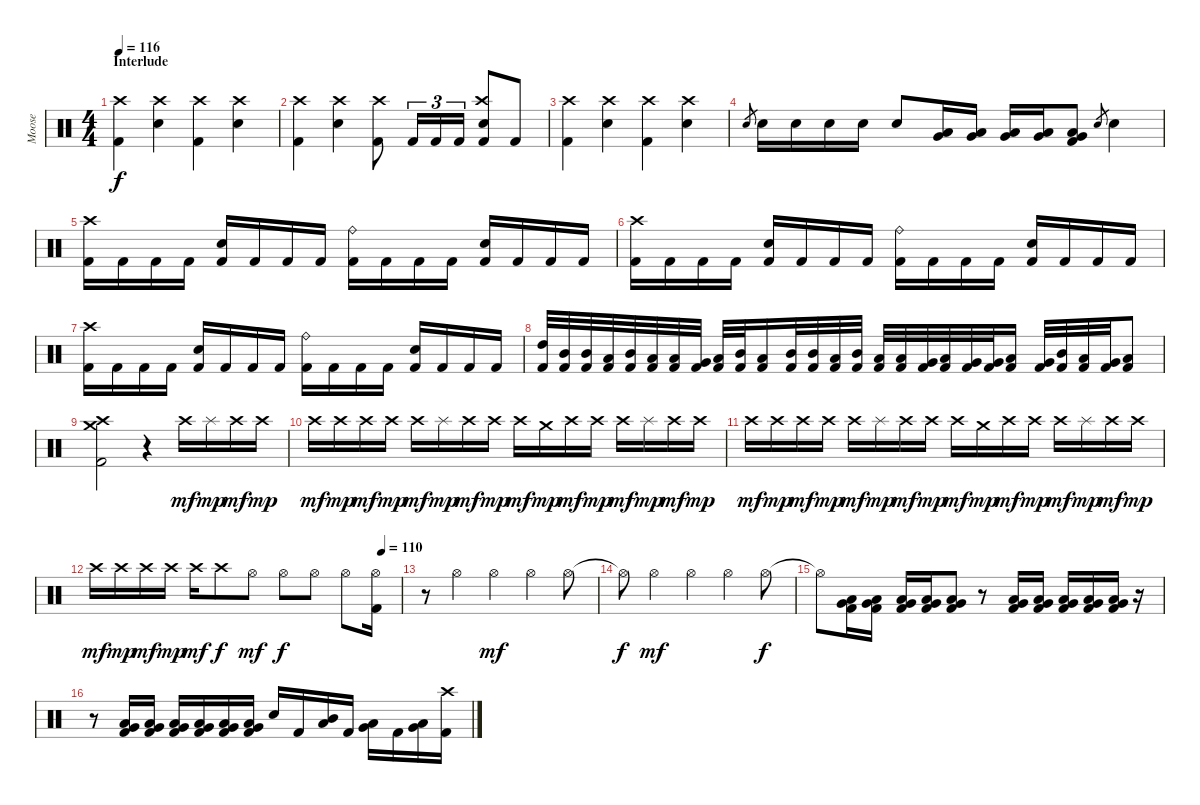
\track ("Moose" "Moose") {instrument percussion}
\staff {score}
\articulation defaults
\ts (4 4)
\section ("" "Interlude")
\tempo 116
\clef neutral
\ks c
("Kick (hit) 2" "Crash high (hit)").4{dy f} ("Snare (hit) 2" "Crash high (hit)").4 ("Kick (hit) 2" "Crash high (hit)").4 ("Snare (hit) 2" "Crash high (hit)").4 |
("Kick (hit) 2" "Crash high (hit)").4 ("Snare (hit) 2" "Crash high (hit)").4 ("Kick (hit) 2" "Crash high (hit)").8 "Kick (hit) 2".16{tu (3 2)} "Kick (hit) 2".16{tu (3 2)} "Kick (hit) 2".16{tu (3 2)} ("Kick (hit) 2" "Snare (hit) 2" "Crash high (hit)").8 "Kick (hit) 2".8 |
("Kick (hit) 2" "Crash high (hit)").4 ("Snare (hit) 2" "Crash high (hit)").4 ("Kick (hit) 2" "Crash high (hit)").4 ("Snare (hit) 2" "Crash high (hit)").4 |
"Snare (hit) 2".8{gr} "Snare (hit) 2".16 "Snare (hit) 2".16 "Snare (hit) 2".16 "Snare (hit) 2".16 "Snare (hit) 2".8 ("Low Tom (hit)" "Very Low Tom (hit)").16 ("Low Tom (hit)" "Very Low Tom (hit)").16 ("Low Tom (hit)" "Very Low Tom (hit)").16 ("Low Tom (hit)" "Very Low Tom (hit)").16 ("Kick (hit) 2" "Very Low Tom (hit)" "Low Floor Tom (hit)").8 "Snare (hit) 2".8{gr} "Snare (hit) 2".4 |
("Kick (hit) 2" "Crash high (hit)").16 "Kick (hit) 2".16 "Kick (hit) 2".16 "Kick (hit) 2".16 ("Kick (hit) 2" "Snare (hit) 2").16 "Kick (hit) 2".16 "Kick (hit) 2".16 "Kick (hit) 2".16 ("Kick (hit) 2" "Ride (bell)").16 "Kick (hit) 2".16 "Kick (hit) 2".16 "Kick (hit) 2".16 ("Kick (hit) 2" "Snare (hit) 2").16 "Kick (hit) 2".16 "Kick (hit) 2".16 "Kick (hit) 2".16 |
("Kick (hit) 2" "Crash high (hit)").16 "Kick (hit) 2".16 "Kick (hit) 2".16 "Kick (hit) 2".16 ("Kick (hit) 2" "Snare (hit) 2").16 "Kick (hit) 2".16 "Kick (hit) 2".16 "Kick (hit) 2".16 ("Kick (hit) 2" "Ride (bell)").16 "Kick (hit) 2".16 "Kick (hit) 2".16 "Kick (hit) 2".16 ("Kick (hit) 2" "Snare (hit) 2").16 "Kick (hit) 2".16 "Kick (hit) 2".16 "Kick (hit) 2".16 |
("Kick (hit) 2" "Crash high (hit)").16 "Kick (hit) 2".16 "Kick (hit) 2".16 "Kick (hit) 2".16 ("Kick (hit) 2" "Snare (hit) 2").16 "Kick (hit) 2".16 "Kick (hit) 2".16 "Kick (hit) 2".16 ("Kick (hit) 2" "Ride (bell)").16 "Kick (hit) 2".16 "Kick (hit) 2".16 "Kick (hit) 2".16 ("Kick (hit) 2" "Snare (hit) 2").16 "Kick (hit) 2".16 "Kick (hit) 2".16 "Kick (hit) 2".16 |
("Kick (hit) 2" "High Tom (hit)").32 ("Kick (hit) 2" "Mid Tom (hit)").32 ("Kick (hit) 2" "Mid Tom (hit)").32 ("Kick (hit) 2" "Low Tom (hit)").32 ("Kick (hit) 2" "Mid Tom (hit)").32 ("Kick (hit) 2" "Low Tom (hit)").32 ("Kick (hit) 2" "Low Tom (hit)").32 ("Kick (hit) 2" "Very Low Tom (hit)").32 ("Kick (hit) 2" "Low Tom (hit)").32 ("Kick (hit) 2" "Mid Tom (hit)").32 ("Kick (hit) 2" "Low Tom (hit)").16 ("Kick (hit) 2" "Mid Tom (hit)").32 ("Kick (hit) 2" "Mid Tom (hit)").32 ("Kick (hit) 2" "Low Tom (hit)").32 ("Kick (hit) 2" "Mid Tom (hit)").32 ("Kick (hit) 2" "Low Tom (hit)").32 ("Kick (hit) 2" "Low Tom (hit)").32 ("Kick (hit) 2" "Very Low Tom (hit)").32 ("Kick (hit) 2" "Low Tom (hit)").32 ("Kick (hit) 2" "Very Low Tom (hit)").32 ("Kick (hit) 2" "Very Low Tom (hit)").32 ("Kick (hit) 2" "Low Floor Tom (hit)").16 ("Kick (hit) 2" "Very Low Tom (hit)").32 ("Kick (hit) 2" "Mid Tom (hit)").32 ("Kick (hit) 2" "Low Tom (hit)").32 ("Kick (hit) 2" "Very Low Tom (hit)").32 ("Kick (hit) 2" "Low Floor Tom (hit)").8 |
("Kick (hit) 2" "Crash high (hit)" "Crash medium (hit)").2 r.4 "Crash high (hit)".16{dy mf} "Splash (hit)".16{dy mp} "Crash high (hit)".16{dy mf} "Crash high (hit)".16{dy mp} |
"Crash high (hit)".16{dy mf} "Crash high (hit)".16{dy mp} "Crash high (hit)".16{dy mf} "Crash high (hit)".16{dy mp} "Crash high (hit)".16{dy mf} "Splash (hit)".16{dy mp} "Crash high (hit)".16{dy mf} "Crash high (hit)".16{dy mp} "Crash high (hit)".16{dy mf} "Crash medium (hit)".16{dy mp} "Crash high (hit)".16{dy mf} "Crash high (hit)".16{dy mp} "Crash high (hit)".16{dy mf} "Splash (hit)".16{dy mp} "Crash high (hit)".16{dy mf} "Crash high (hit)".16{dy mp} |
"Crash high (hit)".16{dy mf} "Crash high (hit)".16{dy mp} "Crash high (hit)".16{dy mf} "Crash high (hit)".16{dy mp} "Crash high (hit)".16{dy mf} "Splash (hit)".16{dy mp} "Crash high (hit)".16{dy mf} "Crash high (hit)".16{dy mp} "Crash high (hit)".16{dy mf} "Crash medium (hit)".16{dy mp} "Crash high (hit)".16{dy mf} "Crash high (hit)".16{dy mp} "Crash high (hit)".16{dy mf} "Splash (hit)".16{dy mp} "Crash high (hit)".16{dy mf} "Crash high (hit)".16{dy mp} |
\tempo (110 0.9375)
"Crash high (hit)".16{dy mf} "Crash high (hit)".16{dy mp} "Crash high (hit)".16{dy mf} "Crash high (hit)".16{dy mp} "Crash high (hit)".16{dy mf} "Crash high (hit)".8{dy f} "Hi-Hat (open)".8{dy mf} "Hi-Hat (open)".8{dy f} "Hi-Hat (open)".8 "Hi-Hat (open)".8 ("Kick (hit) 2" "Hi-Hat (open)").16 |
r.8 "Hi-Hat (open)".4 "Hi-Hat (open)".4{dy mf} "Hi-Hat (open)".4 "Hi-Hat (open)".8 |
"Hi-Hat (open)"{t}.8{dy f} "Hi-Hat (open)".4{dy mf} "Hi-Hat (open)".4 "Hi-Hat (open)".4 "Hi-Hat (open)".8{dy f} |
"Hi-Hat (open)"{t}.8 ("Kick (hit) 2" "Low Floor Tom (hit)" "Very Low Tom (hit)").16 ("Kick (hit) 2" "Low Floor Tom (hit)" "Very Low Tom (hit)").16 ("Kick (hit) 2" "Low Floor Tom (hit)" "Very Low Tom (hit)").16 ("Kick (hit) 2" "Low Floor Tom (hit)" "Very Low Tom (hit)").16 ("Kick (hit) 2" "Low Floor Tom (hit)" "Very Low Tom (hit)").8 r.8 ("Kick (hit) 2" "Very Low Tom (hit)" "Low Tom (hit)").16 ("Kick (hit) 2" "Very Low Tom (hit)" "Low Tom (hit)").16 ("Kick (hit) 2" "Very Low Tom (hit)" "Low Tom (hit)").16 ("Kick (hit) 2" "Very Low Tom (hit)" "Low Tom (hit)").16 ("Kick (hit) 2" "Very Low Tom (hit)" "Low Tom (hit)").16 r.16 |
r.8 ("Kick (hit) 2" "Low Floor Tom (hit)" "Very Low Tom (hit)").16 ("Kick (hit) 2" "Low Floor Tom (hit)" "Very Low Tom (hit)").16 ("Kick (hit) 2" "Low Floor Tom (hit)" "Very Low Tom (hit)").16 ("Kick (hit) 2" "Low Floor Tom (hit)" "Very Low Tom (hit)").16 ("Kick (hit) 2" "Low Floor Tom (hit)" "Very Low Tom (hit)").16 ("Kick (hit) 2" "Low Floor Tom (hit)" "Very Low Tom (hit)").16 "Snare (hit) 2".16 "Kick (hit) 2".16 ("Low Tom (hit)" "Mid Tom (hit)").16 "Kick (hit) 2".16 ("Very Low Tom (hit)" "Low Tom (hit)").16 "Kick (hit) 2".16 ("Low Floor Tom (hit)" "Very Low Tom (hit)").16 ("Kick (hit) 2" "Crash high (hit)").16
